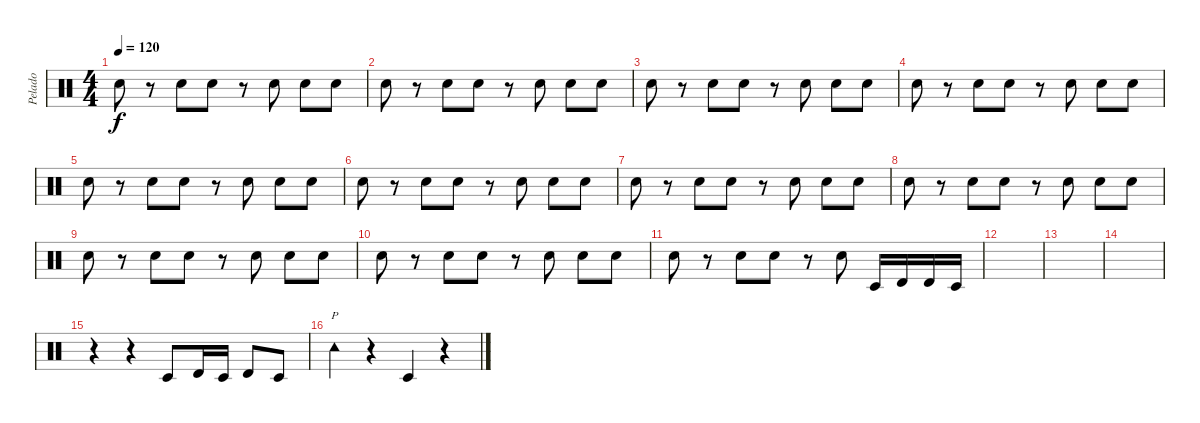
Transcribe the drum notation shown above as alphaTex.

\track ("Pelado" "Pelado") {instrument percussion}
\staff {score}
\articulation defaults
\ts (4 4)
\tempo 120
\clef neutral
\ks c "Snare (hit) 2".8{dy f}
r.8 "Electric Snare (hit)".8 "Electric Snare (hit)".8 r.8 "Snare (hit) 2".8 "Electric Snare (hit)".8 "Electric Snare (hit)".8 |
"Snare (hit) 2".8 r.8 "Electric Snare (hit)".8 "Electric Snare (hit)".8 r.8 "Snare (hit) 2".8 "Electric Snare (hit)".8 "Electric Snare (hit)".8 |
"Snare (hit) 2".8 r.8 "Electric Snare (hit)".8 "Electric Snare (hit)".8 r.8 "Snare (hit) 2".8 "Electric Snare (hit)".8 "Electric Snare (hit)".8 |
"Snare (hit) 2".8 r.8 "Electric Snare (hit)".8 "Electric Snare (hit)".8 r.8 "Snare (hit) 2".8 "Electric Snare (hit)".8 "Electric Snare (hit)".8 |
"Snare (hit) 2".8 r.8 "Electric Snare (hit)".8 "Electric Snare (hit)".8 r.8 "Snare (hit) 2".8 "Electric Snare (hit)".8 "Electric Snare (hit)".8 |
"Snare (hit) 2".8 r.8 "Electric Snare (hit)".8 "Electric Snare (hit)".8 r.8 "Snare (hit) 2".8 "Electric Snare (hit)".8 "Electric Snare (hit)".8 |
"Snare (hit) 2".8 r.8 "Electric Snare (hit)".8 "Electric Snare (hit)".8 r.8 "Snare (hit) 2".8 "Electric Snare (hit)".8 "Electric Snare (hit)".8 |
"Snare (hit) 2".8 r.8 "Electric Snare (hit)".8 "Electric Snare (hit)".8 r.8 "Snare (hit) 2".8 "Electric Snare (hit)".8 "Electric Snare (hit)".8 |
"Snare (hit) 2".8 r.8 "Electric Snare (hit)".8 "Electric Snare (hit)".8 r.8 "Snare (hit) 2".8 "Electric Snare (hit)".8 "Electric Snare (hit)".8 |
"Snare (hit) 2".8 r.8 "Electric Snare (hit)".8 "Electric Snare (hit)".8 r.8 "Snare (hit) 2".8 "Electric Snare (hit)".8 "Electric Snare (hit)".8 |
"Snare (hit) 2".8 r.8 "Electric Snare (hit)".8 "Electric Snare (hit)".8 r.8 "Snare (hit) 2".8 "Timbale low (hit)".16 "Timbale high (hit)".16 "Timbale high (hit)".16 "Timbale low (hit)".16 |
|
|
|
r.4 r.4 "Timbale low (hit)".8 "Timbale high (hit)".16 "Timbale low (hit)".16 "Timbale high (hit)".8 "Timbale low (hit)".8 |
"Tambourine (hit)".4{p} r.4 "Timbale low (hit)".4 r.4
